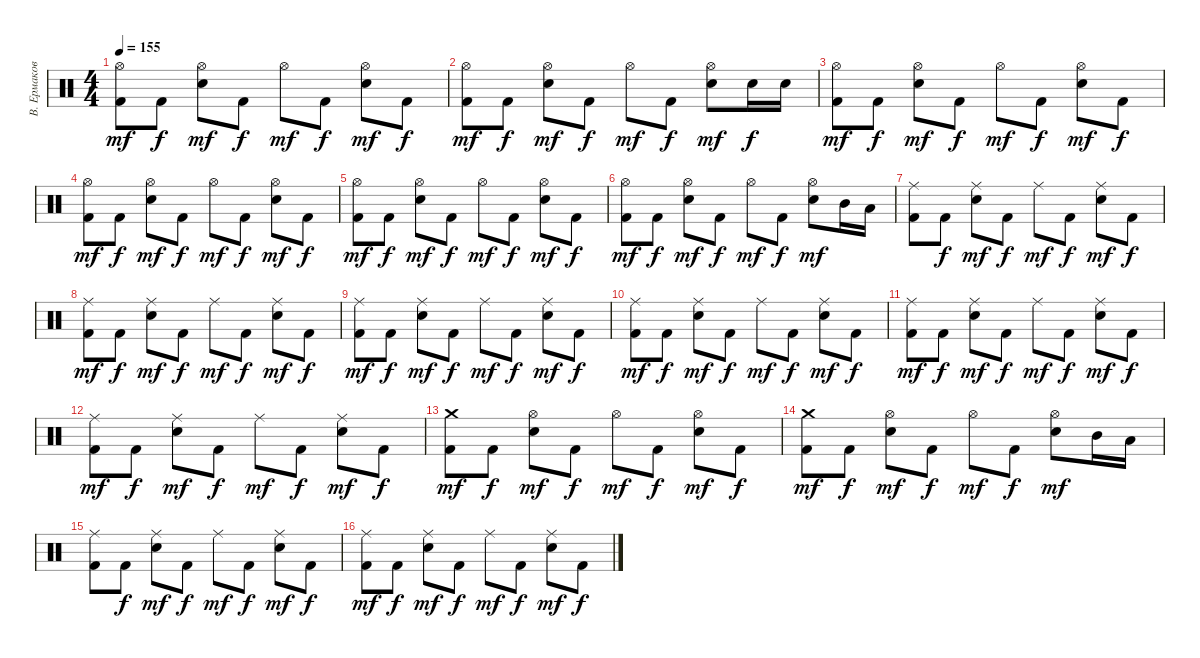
\track ("В. Ермаков" "В. Ермаков") {instrument percussion}
\staff {score}
\articulation defaults
\ts (4 4)
\tempo 155
\clef neutral
\ks c
("Hi-Hat (open)" "Kick (hit) 2").8{dy mf} "Kick (hit) 2".8{dy f} ("Hi-Hat (open)" "Electric Snare (hit)").8{dy mf} "Kick (hit) 2".8{dy f} "Hi-Hat (open)".8{dy mf} "Kick (hit) 2".8{dy f} ("Hi-Hat (open)" "Electric Snare (hit)").8{dy mf} "Kick (hit) 2".8{dy f} |
("Hi-Hat (open)" "Kick (hit) 2").8{dy mf} "Kick (hit) 2".8{dy f} ("Hi-Hat (open)" "Electric Snare (hit)").8{dy mf} "Kick (hit) 2".8{dy f} "Hi-Hat (open)".8{dy mf} "Kick (hit) 2".8{dy f} ("Hi-Hat (open)" "Electric Snare (hit)").8{dy mf} "Electric Snare (hit)".16{dy f} "Electric Snare (hit)".16 |
("Hi-Hat (open)" "Kick (hit) 2").8{dy mf} "Kick (hit) 2".8{dy f} ("Hi-Hat (open)" "Electric Snare (hit)").8{dy mf} "Kick (hit) 2".8{dy f} "Hi-Hat (open)".8{dy mf} "Kick (hit) 2".8{dy f} ("Hi-Hat (open)" "Electric Snare (hit)").8{dy mf} "Kick (hit) 2".8{dy f} |
("Hi-Hat (open)" "Kick (hit) 2").8{dy mf} "Kick (hit) 2".8{dy f} ("Hi-Hat (open)" "Electric Snare (hit)").8{dy mf} "Kick (hit) 2".8{dy f} "Hi-Hat (open)".8{dy mf} "Kick (hit) 2".8{dy f} ("Hi-Hat (open)" "Electric Snare (hit)").8{dy mf} "Kick (hit) 2".8{dy f} |
("Hi-Hat (open)" "Kick (hit) 2").8{dy mf} "Kick (hit) 2".8{dy f} ("Hi-Hat (open)" "Electric Snare (hit)").8{dy mf} "Kick (hit) 2".8{dy f} "Hi-Hat (open)".8{dy mf} "Kick (hit) 2".8{dy f} ("Hi-Hat (open)" "Electric Snare (hit)").8{dy mf} "Kick (hit) 2".8{dy f} |
("Hi-Hat (open)" "Kick (hit) 2").8{dy mf} "Kick (hit) 2".8{dy f} ("Hi-Hat (open)" "Electric Snare (hit)").8{dy mf} "Kick (hit) 2".8{dy f} "Hi-Hat (open)".8{dy mf} "Kick (hit) 2".8{dy f} ("Hi-Hat (open)" "Electric Snare (hit)").8{dy mf} "Mid Tom (hit)".16 "Low Tom (hit)".16 |
("Ride (middle)" "Kick (hit) 2").8 "Kick (hit) 2".8{dy f} ("Ride (middle)" "Electric Snare (hit)").8{dy mf} "Kick (hit) 2".8{dy f} "Ride (middle)".8{dy mf} "Kick (hit) 2".8{dy f} ("Ride (middle)" "Electric Snare (hit)").8{dy mf} "Kick (hit) 2".8{dy f} |
("Ride (middle)" "Kick (hit) 2").8{dy mf} "Kick (hit) 2".8{dy f} ("Ride (middle)" "Electric Snare (hit)").8{dy mf} "Kick (hit) 2".8{dy f} "Ride (middle)".8{dy mf} "Kick (hit) 2".8{dy f} ("Ride (middle)" "Electric Snare (hit)").8{dy mf} "Kick (hit) 2".8{dy f} |
("Ride (middle)" "Kick (hit) 2").8{dy mf} "Kick (hit) 2".8{dy f} ("Ride (middle)" "Electric Snare (hit)").8{dy mf} "Kick (hit) 2".8{dy f} "Ride (middle)".8{dy mf} "Kick (hit) 2".8{dy f} ("Ride (middle)" "Electric Snare (hit)").8{dy mf} "Kick (hit) 2".8{dy f} |
("Ride (middle)" "Kick (hit) 2").8{dy mf} "Kick (hit) 2".8{dy f} ("Ride (middle)" "Electric Snare (hit)").8{dy mf} "Kick (hit) 2".8{dy f} "Ride (middle)".8{dy mf} "Kick (hit) 2".8{dy f} ("Ride (middle)" "Electric Snare (hit)").8{dy mf} "Kick (hit) 2".8{dy f} |
("Ride (middle)" "Kick (hit) 2").8{dy mf} "Kick (hit) 2".8{dy f} ("Ride (middle)" "Electric Snare (hit)").8{dy mf} "Kick (hit) 2".8{dy f} "Ride (middle)".8{dy mf} "Kick (hit) 2".8{dy f} ("Ride (middle)" "Electric Snare (hit)").8{dy mf} "Kick (hit) 2".8{dy f} |
("Ride (middle)" "Kick (hit) 2").8{dy mf} "Kick (hit) 2".8{dy f} ("Ride (middle)" "Electric Snare (hit)").8{dy mf} "Kick (hit) 2".8{dy f} "Ride (middle)".8{dy mf} "Kick (hit) 2".8{dy f} ("Ride (middle)" "Electric Snare (hit)").8{dy mf} "Kick (hit) 2".8{dy f} |
("Crash medium (hit)" "Kick (hit) 2").8{dy mf} "Kick (hit) 2".8{dy f} ("Hi-Hat (open)" "Electric Snare (hit)").8{dy mf} "Kick (hit) 2".8{dy f} "Hi-Hat (open)".8{dy mf} "Kick (hit) 2".8{dy f} ("Hi-Hat (open)" "Electric Snare (hit)").8{dy mf} "Kick (hit) 2".8{dy f} |
("Crash medium (hit)" "Kick (hit) 2").8{dy mf} "Kick (hit) 2".8{dy f} ("Hi-Hat (open)" "Electric Snare (hit)").8{dy mf} "Kick (hit) 2".8{dy f} "Hi-Hat (open)".8{dy mf} "Kick (hit) 2".8{dy f} ("Hi-Hat (open)" "Electric Snare (hit)").8{dy mf} "Mid Tom (hit)".16 "Low Tom (hit)".16 |
("Ride (middle)" "Kick (hit) 2").8 "Kick (hit) 2".8{dy f} ("Ride (middle)" "Electric Snare (hit)").8{dy mf} "Kick (hit) 2".8{dy f} "Ride (middle)".8{dy mf} "Kick (hit) 2".8{dy f} ("Ride (middle)" "Electric Snare (hit)").8{dy mf} "Kick (hit) 2".8{dy f} |
("Ride (middle)" "Kick (hit) 2").8{dy mf} "Kick (hit) 2".8{dy f} ("Ride (middle)" "Electric Snare (hit)").8{dy mf} "Kick (hit) 2".8{dy f} "Ride (middle)".8{dy mf} "Kick (hit) 2".8{dy f} ("Ride (middle)" "Electric Snare (hit)").8{dy mf} "Kick (hit) 2".8{dy f}
